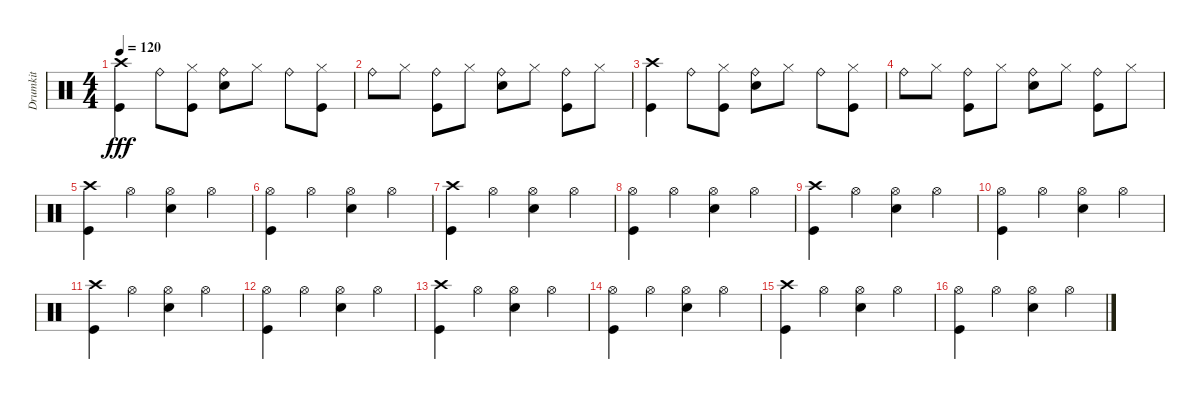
\track ("Drumkit" "Drumkit") {instrument percussion}
\staff {score}
\articulation defaults
\ts (4 4)
\tempo 120
\clef neutral
\ks c
("Kick (hit)" "Crash high (hit)").4{dy fff} "Ride (bell)".8 ("Kick (hit)" "Hi-Hat (closed)").8 ("Snare (hit) 2" "Ride (bell)").8 "Hi-Hat (closed)".8 "Ride (bell)".8 ("Hi-Hat (closed)" "Kick (hit)").8 |
"Ride (bell)".8 "Hi-Hat (closed)".8 ("Ride (bell)" "Kick (hit)").8 "Hi-Hat (closed)".8 ("Ride (bell)" "Snare (hit) 2").8 "Hi-Hat (closed)".8 ("Ride (bell)" "Kick (hit)").8 "Hi-Hat (closed)".8 |
("Kick (hit)" "Crash high (hit)").4 "Ride (bell)".8 ("Kick (hit)" "Hi-Hat (closed)").8 ("Snare (hit) 2" "Ride (bell)").8 "Hi-Hat (closed)".8 "Ride (bell)".8 ("Hi-Hat (closed)" "Kick (hit)").8 |
"Ride (bell)".8 "Hi-Hat (closed)".8 ("Ride (bell)" "Kick (hit)").8 "Hi-Hat (closed)".8 ("Ride (bell)" "Snare (hit) 2").8 "Hi-Hat (closed)".8 ("Ride (bell)" "Kick (hit)").8 "Hi-Hat (closed)".8 |
("Kick (hit)" "Crash high (hit)").4 "Hi-Hat (open)".4 ("Snare (hit) 2" "Hi-Hat (open)").4 "Hi-Hat (open)".4 |
("Kick (hit)" "Hi-Hat (open)").4 "Hi-Hat (open)".4 ("Snare (hit) 2" "Hi-Hat (open)").4 "Hi-Hat (open)".4 |
("Kick (hit)" "Crash high (hit)").4 "Hi-Hat (open)".4 ("Snare (hit) 2" "Hi-Hat (open)").4 "Hi-Hat (open)".4 |
("Kick (hit)" "Hi-Hat (open)").4 "Hi-Hat (open)".4 ("Snare (hit) 2" "Hi-Hat (open)").4 "Hi-Hat (open)".4 |
("Kick (hit)" "Crash high (hit)").4 "Hi-Hat (open)".4 ("Snare (hit) 2" "Hi-Hat (open)").4 "Hi-Hat (open)".4 |
("Kick (hit)" "Hi-Hat (open)").4 "Hi-Hat (open)".4 ("Snare (hit) 2" "Hi-Hat (open)").4 "Hi-Hat (open)".4 |
("Kick (hit)" "Crash high (hit)").4 "Hi-Hat (open)".4 ("Snare (hit) 2" "Hi-Hat (open)").4 "Hi-Hat (open)".4 |
("Kick (hit)" "Hi-Hat (open)").4 "Hi-Hat (open)".4 ("Snare (hit) 2" "Hi-Hat (open)").4 "Hi-Hat (open)".4 |
("Kick (hit)" "Crash high (hit)").4 "Hi-Hat (open)".4 ("Snare (hit) 2" "Hi-Hat (open)").4 "Hi-Hat (open)".4 |
("Kick (hit)" "Hi-Hat (open)").4 "Hi-Hat (open)".4 ("Snare (hit) 2" "Hi-Hat (open)").4 "Hi-Hat (open)".4 |
("Kick (hit)" "Crash high (hit)").4 "Hi-Hat (open)".4 ("Snare (hit) 2" "Hi-Hat (open)").4 "Hi-Hat (open)".4 |
("Kick (hit)" "Hi-Hat (open)").4 "Hi-Hat (open)".4 ("Snare (hit) 2" "Hi-Hat (open)").4 "Hi-Hat (open)".4
